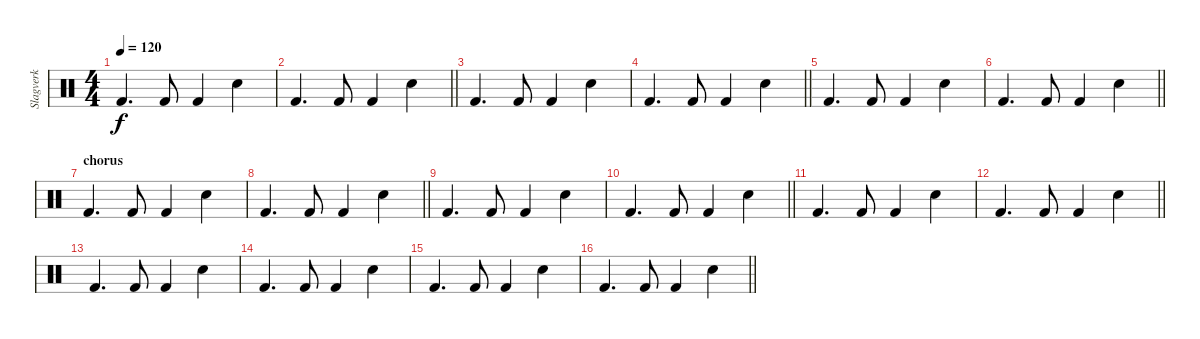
\track ("Slagverk" "Slagverk") {instrument percussion}
\staff {score}
\articulation defaults
\ts (4 4)
\tempo 120
\clef neutral
\ks c "Kick (hit) 2".4{d dy f} "Kick (hit) 2".8 "Kick (hit) 2".4 "Snare (hit) 2".4
|
\barLineRight lightlight "Kick (hit) 2".4{d} "Kick (hit) 2".8 "Kick (hit) 2".4 "Snare (hit) 2".4
|
"Kick (hit) 2".4{d} "Kick (hit) 2".8 "Kick (hit) 2".4 "Snare (hit) 2".4 |
\barLineRight lightlight "Kick (hit) 2".4{d} "Kick (hit) 2".8 "Kick (hit) 2".4 "Snare (hit) 2".4
|
"Kick (hit) 2".4{d} "Kick (hit) 2".8 "Kick (hit) 2".4 "Snare (hit) 2".4 |
\barLineRight lightlight "Kick (hit) 2".4{d} "Kick (hit) 2".8 "Kick (hit) 2".4 "Snare (hit) 2".4
|
\section ("" "chorus")
"Kick (hit) 2".4{d} "Kick (hit) 2".8 "Kick (hit) 2".4 "Snare (hit) 2".4 |
\barLineRight lightlight "Kick (hit) 2".4{d} "Kick (hit) 2".8 "Kick (hit) 2".4 "Snare (hit) 2".4
|
"Kick (hit) 2".4{d} "Kick (hit) 2".8 "Kick (hit) 2".4 "Snare (hit) 2".4 |
\barLineRight lightlight "Kick (hit) 2".4{d} "Kick (hit) 2".8 "Kick (hit) 2".4 "Snare (hit) 2".4
|
"Kick (hit) 2".4{d} "Kick (hit) 2".8 "Kick (hit) 2".4 "Snare (hit) 2".4 |
\barLineRight lightlight "Kick (hit) 2".4{d} "Kick (hit) 2".8 "Kick (hit) 2".4 "Snare (hit) 2".4
|
"Kick (hit) 2".4{d} "Kick (hit) 2".8 "Kick (hit) 2".4 "Snare (hit) 2".4 |
"Kick (hit) 2".4{d} "Kick (hit) 2".8 "Kick (hit) 2".4 "Snare (hit) 2".4 |
"Kick (hit) 2".4{d} "Kick (hit) 2".8 "Kick (hit) 2".4 "Snare (hit) 2".4 |
\barLineRight lightlight "Kick (hit) 2".4{d} "Kick (hit) 2".8 "Kick (hit) 2".4 "Snare (hit) 2".4
